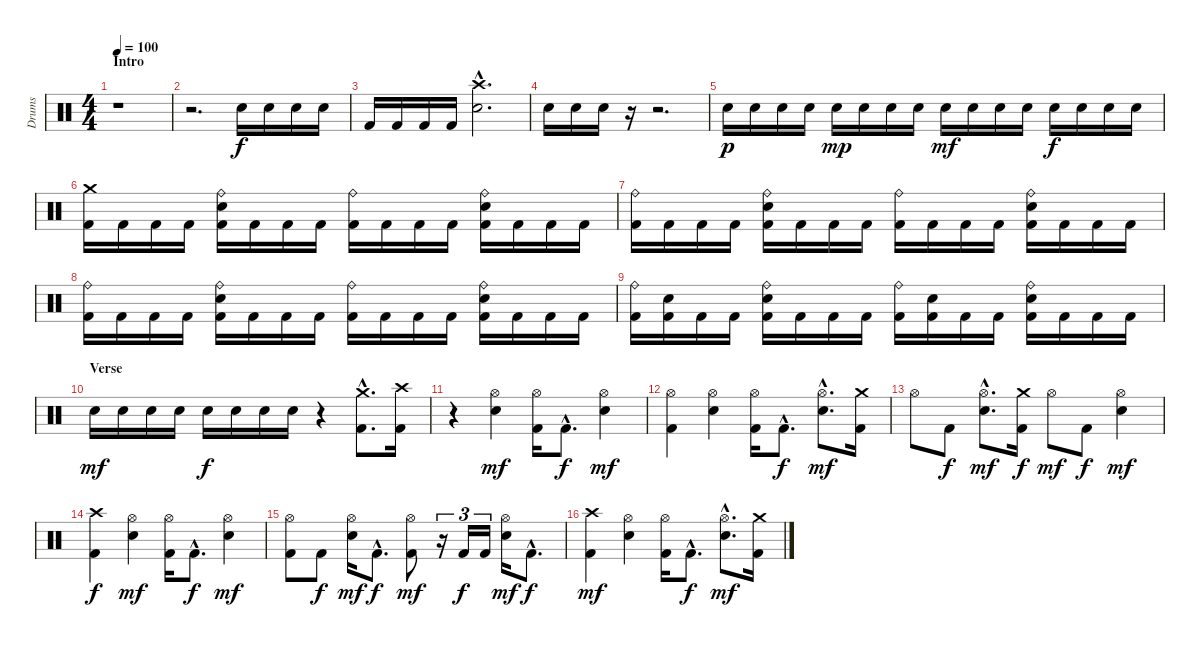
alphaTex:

\track ("Drums" "Drums") {instrument percussion}
\staff {score}
\articulation defaults
\ts (4 4)
\section ("" "Intro")
\tempo 100
\clef neutral
\ks c
r.1{dy f} |
r.2{d} "Electric Snare (hit)".16 "Electric Snare (hit)".16 "Electric Snare (hit)".16 "Electric Snare (hit)".16 |
"Kick (hit) 2".16 "Kick (hit) 2".16 "Kick (hit) 2".16 "Kick (hit) 2".16 ("Crash high (hit)"{hac} "Electric Snare (hit)"{hac}).2{d} |
"Electric Snare (hit)".16 "Electric Snare (hit)".16 "Electric Snare (hit)".16 r.16 r.2{d} |
"Electric Snare (hit)".16{dy p} "Electric Snare (hit)".16 "Electric Snare (hit)".16 "Electric Snare (hit)".16 "Electric Snare (hit)".16{dy mp} "Electric Snare (hit)".16 "Electric Snare (hit)".16 "Electric Snare (hit)".16 "Electric Snare (hit)".16{dy mf} "Electric Snare (hit)".16 "Electric Snare (hit)".16 "Electric Snare (hit)".16 "Electric Snare (hit)".16{dy f} "Electric Snare (hit)".16 "Electric Snare (hit)".16 "Electric Snare (hit)".16 |
("Crash medium (hit)" "Kick (hit) 2").16 "Kick (hit) 2".16 "Kick (hit) 2".16 "Kick (hit) 2".16 ("Ride (bell)" "Electric Snare (hit)" "Kick (hit) 2").16 "Kick (hit) 2".16 "Kick (hit) 2".16 "Kick (hit) 2".16 ("Ride (bell)" "Kick (hit) 2").16 "Kick (hit) 2".16 "Kick (hit) 2".16 "Kick (hit) 2".16 ("Ride (bell)" "Electric Snare (hit)" "Kick (hit) 2").16 "Kick (hit) 2".16 "Kick (hit) 2".16 "Kick (hit) 2".16 |
("Ride (bell)" "Kick (hit) 2").16 "Kick (hit) 2".16 "Kick (hit) 2".16 "Kick (hit) 2".16 ("Ride (bell)" "Electric Snare (hit)" "Kick (hit) 2").16 "Kick (hit) 2".16 "Kick (hit) 2".16 "Kick (hit) 2".16 ("Ride (bell)" "Kick (hit) 2").16 "Kick (hit) 2".16 "Kick (hit) 2".16 "Kick (hit) 2".16 ("Ride (bell)" "Electric Snare (hit)" "Kick (hit) 2").16 "Kick (hit) 2".16 "Kick (hit) 2".16 "Kick (hit) 2".16 |
("Ride (bell)" "Kick (hit) 2").16 "Kick (hit) 2".16 "Kick (hit) 2".16 "Kick (hit) 2".16 ("Ride (bell)" "Electric Snare (hit)" "Kick (hit) 2").16 "Kick (hit) 2".16 "Kick (hit) 2".16 "Kick (hit) 2".16 ("Ride (bell)" "Kick (hit) 2").16 "Kick (hit) 2".16 "Kick (hit) 2".16 "Kick (hit) 2".16 ("Ride (bell)" "Electric Snare (hit)" "Kick (hit) 2").16 "Kick (hit) 2".16 "Kick (hit) 2".16 "Kick (hit) 2".16 |
("Ride (bell)" "Kick (hit) 2").16 ("Electric Snare (hit)" "Kick (hit) 2").16 "Kick (hit) 2".16 "Kick (hit) 2".16 ("Ride (bell)" "Electric Snare (hit)" "Kick (hit) 2").16 "Kick (hit) 2".16 "Kick (hit) 2".16 "Kick (hit) 2".16 ("Ride (bell)" "Kick (hit) 2").16 ("Electric Snare (hit)" "Kick (hit) 2").16 "Kick (hit) 2".16 "Kick (hit) 2".16 ("Ride (bell)" "Electric Snare (hit)" "Kick (hit) 2").16 "Kick (hit) 2".16 "Kick (hit) 2".16 "Kick (hit) 2".16 |
\section ("" "Verse")
"Electric Snare (hit)".16{dy mf} "Electric Snare (hit)".16 "Electric Snare (hit)".16 "Electric Snare (hit)".16 "Electric Snare (hit)".16{dy f} "Electric Snare (hit)".16 "Electric Snare (hit)".16 "Electric Snare (hit)".16 r.4 ("Crash medium (hit)"{hac} "Kick (hit) 2"{hac}).8{d} ("Crash high (hit)" "Kick (hit) 2").16 |
r.4 ("Hi-Hat (open)" "Electric Snare (hit)").4{dy mf} ("Hi-Hat (open)" "Kick (hit) 2").16 "Kick (hit) 2"{hac}.8{d dy f} ("Hi-Hat (open)" "Electric Snare (hit)").4{dy mf} |
("Hi-Hat (open)" "Kick (hit) 2").4 ("Hi-Hat (open)" "Electric Snare (hit)").4 ("Hi-Hat (open)" "Kick (hit) 2").16 "Kick (hit) 2"{hac}.8{d dy f} ("Hi-Hat (open)"{hac} "Electric Snare (hit)"{hac}).8{d dy mf} ("Crash medium (hit)" "Kick (hit) 2").16 |
"Hi-Hat (open)".8 "Kick (hit) 2".8{dy f} ("Hi-Hat (open)"{hac} "Electric Snare (hit)"{hac}).8{d dy mf} ("Crash medium (hit)" "Kick (hit) 2").16{dy f} "Hi-Hat (open)".8{dy mf} "Kick (hit) 2".8{dy f} ("Hi-Hat (open)" "Electric Snare (hit)").4{dy mf} |
("Crash high (hit)" "Kick (hit) 2").4{dy f} ("Hi-Hat (open)" "Electric Snare (hit)").4{dy mf} ("Hi-Hat (open)" "Kick (hit) 2").16 "Kick (hit) 2"{hac}.8{d dy f} ("Hi-Hat (open)" "Electric Snare (hit)").4{dy mf} |
("Hi-Hat (open)" "Kick (hit) 2").8 "Kick (hit) 2".8{dy f} ("Hi-Hat (open)" "Electric Snare (hit)").16{dy mf} "Kick (hit) 2"{hac}.8{d dy f} ("Hi-Hat (open)" "Kick (hit) 2").8{dy mf} r.16{tu (3 2)} "Kick (hit) 2".16{tu (3 2) dy f} "Kick (hit) 2".16{tu (3 2)} ("Hi-Hat (open)" "Electric Snare (hit)").16{dy mf} "Kick (hit) 2"{hac}.8{d dy f} |
("Crash high (hit)" "Kick (hit) 2").4{dy mf} ("Hi-Hat (open)" "Electric Snare (hit)").4 ("Hi-Hat (open)" "Kick (hit) 2").16 "Kick (hit) 2"{hac}.8{d dy f} ("Hi-Hat (open)"{hac} "Electric Snare (hit)"{hac}).8{d dy mf} ("Crash medium (hit)" "Kick (hit) 2").16
